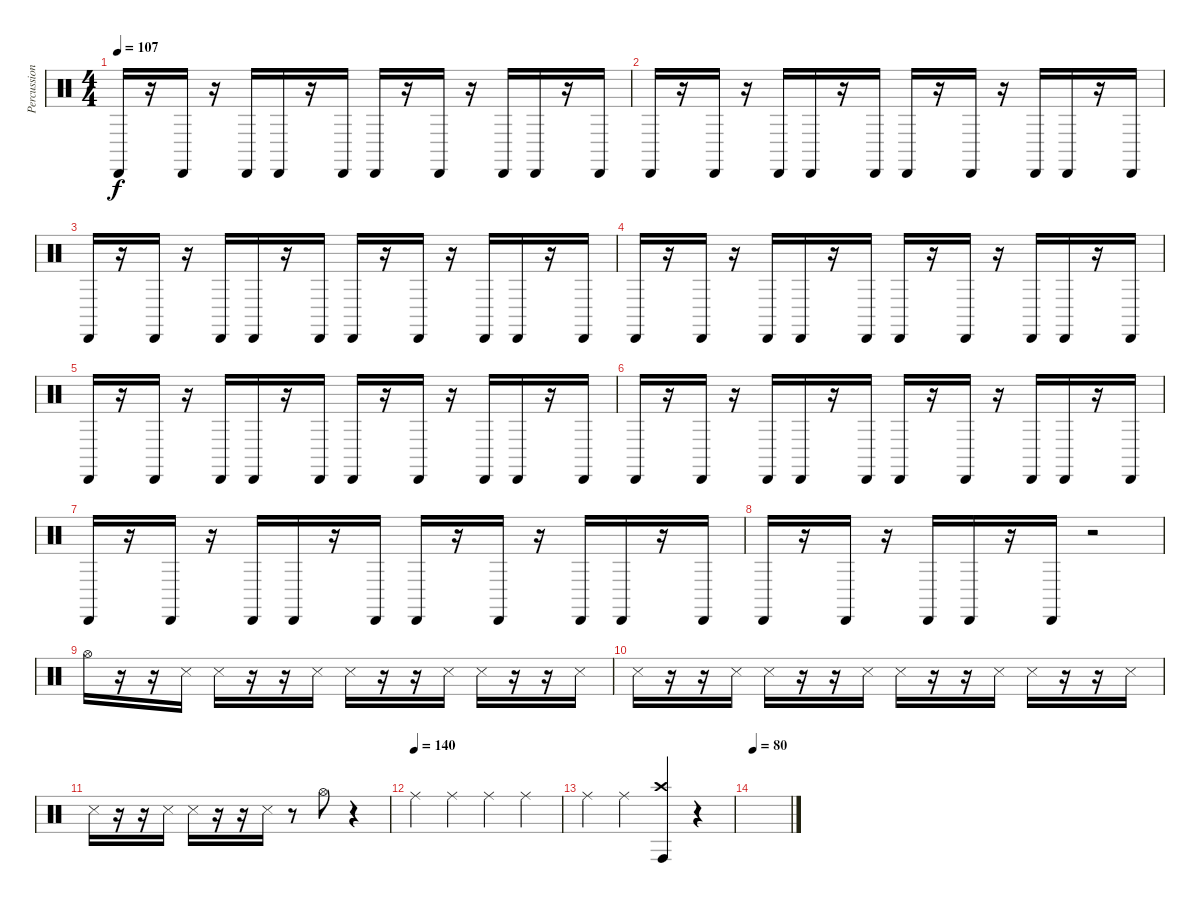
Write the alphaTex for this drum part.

\track ("Percussioni" "Percussion") {instrument percussion}
\staff {score}
\articulation defaults
\ts (4 4)
\tempo 107
\clef neutral
\ks c "Cabasa (hit)".16{dy f}
r.16 "Cabasa (hit)".16 r.16 "Cabasa (hit)".16 "Cabasa (hit)".16 r.16 "Cabasa (hit)".16 "Cabasa (hit)".16 r.16 "Cabasa (hit)".16 r.16 "Cabasa (hit)".16 "Cabasa (hit)".16 r.16 "Cabasa (hit)".16 |
"Cabasa (hit)".16 r.16 "Cabasa (hit)".16 r.16 "Cabasa (hit)".16 "Cabasa (hit)".16 r.16 "Cabasa (hit)".16 "Cabasa (hit)".16 r.16 "Cabasa (hit)".16 r.16 "Cabasa (hit)".16 "Cabasa (hit)".16 r.16 "Cabasa (hit)".16 |
"Cabasa (hit)".16 r.16 "Cabasa (hit)".16 r.16 "Cabasa (hit)".16 "Cabasa (hit)".16 r.16 "Cabasa (hit)".16 "Cabasa (hit)".16 r.16 "Cabasa (hit)".16 r.16 "Cabasa (hit)".16 "Cabasa (hit)".16 r.16 "Cabasa (hit)".16 |
"Cabasa (hit)".16 r.16 "Cabasa (hit)".16 r.16 "Cabasa (hit)".16 "Cabasa (hit)".16 r.16 "Cabasa (hit)".16 "Cabasa (hit)".16 r.16 "Cabasa (hit)".16 r.16 "Cabasa (hit)".16 "Cabasa (hit)".16 r.16 "Cabasa (hit)".16 |
"Cabasa (hit)".16 r.16 "Cabasa (hit)".16 r.16 "Cabasa (hit)".16 "Cabasa (hit)".16 r.16 "Cabasa (hit)".16 "Cabasa (hit)".16 r.16 "Cabasa (hit)".16 r.16 "Cabasa (hit)".16 "Cabasa (hit)".16 r.16 "Cabasa (hit)".16 |
"Cabasa (hit)".16 r.16 "Cabasa (hit)".16 r.16 "Cabasa (hit)".16 "Cabasa (hit)".16 r.16 "Cabasa (hit)".16 "Cabasa (hit)".16 r.16 "Cabasa (hit)".16 r.16 "Cabasa (hit)".16 "Cabasa (hit)".16 r.16 "Cabasa (hit)".16 |
"Cabasa (hit)".16 r.16 "Cabasa (hit)".16 r.16 "Cabasa (hit)".16 "Cabasa (hit)".16 r.16 "Cabasa (hit)".16 "Cabasa (hit)".16 r.16 "Cabasa (hit)".16 r.16 "Cabasa (hit)".16 "Cabasa (hit)".16 r.16 "Cabasa (hit)".16 |
"Cabasa (hit)".16 r.16 "Cabasa (hit)".16 r.16 "Cabasa (hit)".16 "Cabasa (hit)".16 r.16 "Cabasa (hit)".16 r.2 |
"Hi-Hat (open)".16 r.16 r.16 "Metronome (hit)".16 "Metronome (hit)".16 r.16 r.16 "Snare (side stick) 3".16 "Snare (side stick) 3".16 r.16 r.16 "Snare (side stick) 3".16 "Snare (side stick) 3".16 r.16 r.16 "Snare (side stick) 3".16 |
"Snare (side stick) 3".16 r.16 r.16 "Snare (side stick) 3".16 "Snare (side stick) 3".16 r.16 r.16 "Snare (side stick) 3".16 "Snare (side stick) 3".16 r.16 r.16 "Snare (side stick) 3".16 "Snare (side stick) 3".16 r.16 r.16 "Snare (side stick) 3".16 |
"Snare (side stick) 3".16 r.16 r.16 "Snare (side stick) 3".16 "Snare (side stick) 3".16 r.16 r.16 "Snare (side stick) 3".16 r.8 "Hi-Hat (open)".8 r.4 |
\tempo (140)
"Ride (middle)".4 "Ride (middle)".4 "Ride (middle)".4 "Ride (middle)".4 |
"Ride (middle)".4 "Ride (middle)".4 ("Conga high (hit)" "Crash high (hit)").4 r.4 |
\tempo 80
